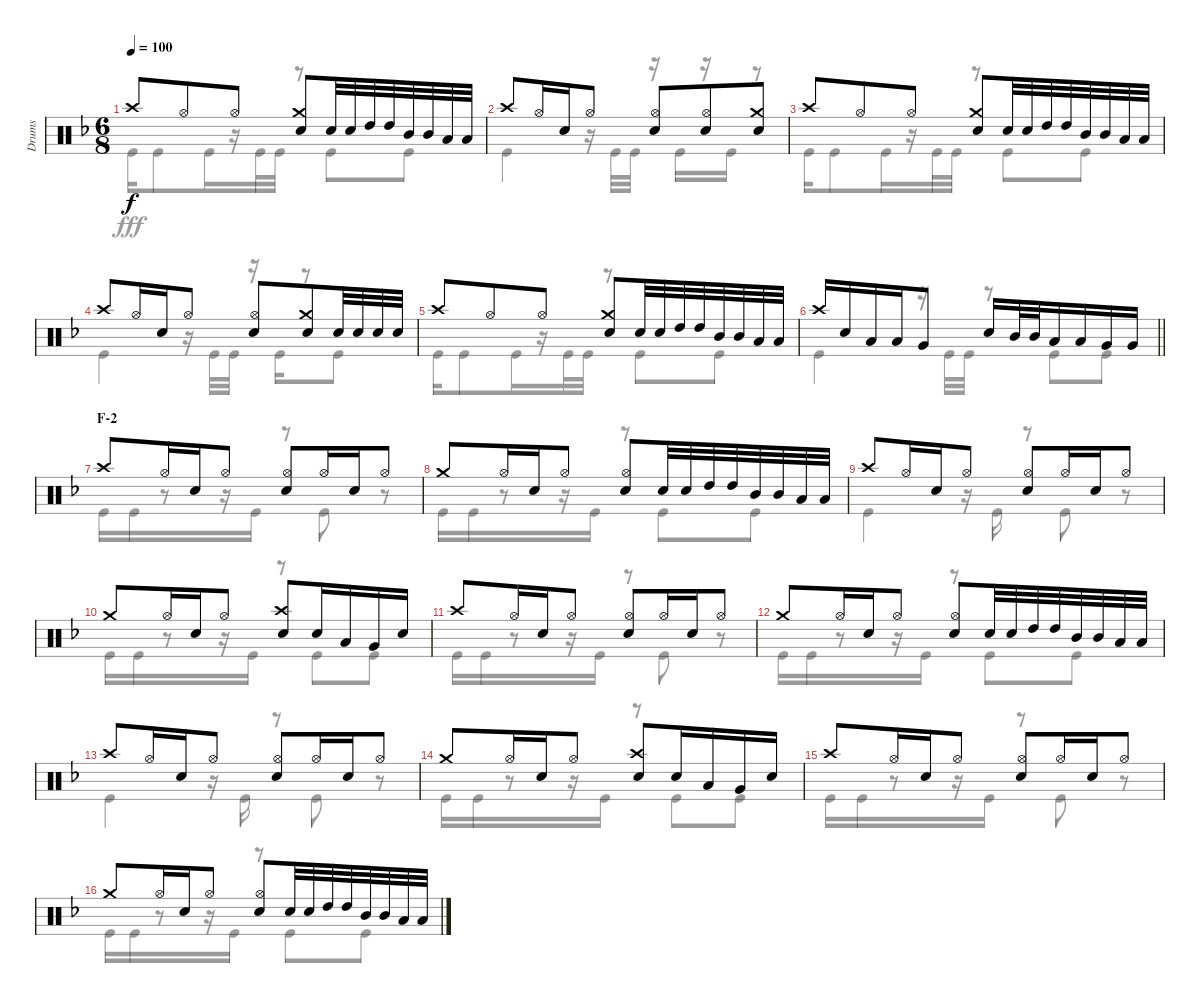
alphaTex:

\track ("Drums" "Drums") {instrument percussion}
\staff {score}
\articulation defaults
\voice
\ts (6 8)
\tempo 100
\clef neutral
\ks f "Crash high (hit)".8{dy f} "Hi-Hat (open)".8 "Hi-Hat (open)".8
("Crash medium (hit)" "Snare (hit) 2").8 "Snare (hit) 2".32 "Snare (hit) 2".32 "High Tom (hit)".32 "High Tom (hit)".32 "Mid Tom (hit)".32 "Mid Tom (hit)".32 "Low Tom (hit)".32 "Low Tom (hit)".32 |
"Crash high (hit)".8 "Hi-Hat (open)".16 "Snare (hit) 2".16 "Hi-Hat (open)".8 ("Hi-Hat (open)" "Snare (hit) 2").8 ("Hi-Hat (open)" "Snare (hit) 2").8 ("Crash medium (hit)" "Snare (hit) 2").8 |
"Crash high (hit)".8 "Hi-Hat (open)".8 "Hi-Hat (open)".8 ("Crash medium (hit)" "Snare (hit) 2").8 "Snare (hit) 2".32 "Snare (hit) 2".32 "High Tom (hit)".32 "High Tom (hit)".32 "Mid Tom (hit)".32 "Mid Tom (hit)".32 "Low Tom (hit)".32 "Low Tom (hit)".32 |
"Crash high (hit)".8 "Hi-Hat (open)".16 "Snare (hit) 2".16 "Hi-Hat (open)".8 ("Hi-Hat (open)" "Snare (hit) 2").8 ("Crash medium (hit)" "Snare (hit) 2").8 "Snare (hit) 2".32 "Snare (hit) 2".32 "Snare (hit) 2".32 "Snare (hit) 2".32 |
"Crash high (hit)".8 "Hi-Hat (open)".8 "Hi-Hat (open)".8 ("Crash medium (hit)" "Snare (hit) 2").8 "Snare (hit) 2".32 "Snare (hit) 2".32 "High Tom (hit)".32 "High Tom (hit)".32 "Mid Tom (hit)".32 "Mid Tom (hit)".32 "Low Tom (hit)".32 "Low Tom (hit)".32 |
\barLineRight lightlight "Crash high (hit)".16 "Snare (hit) 2".16 "Low Tom (hit)".16 "Low Tom (hit)".16 "Very Low Tom (hit)".8 "Snare (hit) 2".16 "Mid Tom (hit)".32 "Mid Tom (hit)".32 "Low Tom (hit)".16 "Low Tom (hit)".16 "Very Low Tom (hit)".16 "Very Low Tom (hit)".16
|
\section ("" "F-2")
"Crash high (hit)".8 "Hi-Hat (open)".16 "Snare (hit) 2".16 "Hi-Hat (open)".8 ("Hi-Hat (open)" "Snare (hit) 2").8 "Hi-Hat (open)".16 "Snare (hit) 2".16 "Hi-Hat (open)".8 |
"Crash medium (hit)".8 "Hi-Hat (open)".16 "Snare (hit) 2".16 "Hi-Hat (open)".8 ("Hi-Hat (open)" "Snare (hit) 2").8 "Snare (hit) 2".32 "Snare (hit) 2".32 "High Tom (hit)".32 "High Tom (hit)".32 "Mid Tom (hit)".32 "Mid Tom (hit)".32 "Low Tom (hit)".32 "Low Tom (hit)".32 |
"Crash high (hit)".8 "Hi-Hat (open)".16 "Snare (hit) 2".16 "Hi-Hat (open)".8 ("Hi-Hat (open)" "Snare (hit) 2").8 "Hi-Hat (open)".16 "Snare (hit) 2".16 "Hi-Hat (open)".8 |
"Crash medium (hit)".8 "Hi-Hat (open)".16 "Snare (hit) 2".16 "Hi-Hat (open)".8 ("Crash high (hit)" "Snare (hit) 2").8 "Snare (hit) 2".16 "Low Tom (hit)".16 "Very Low Tom (hit)".16 "Snare (hit) 2".16 |
"Crash high (hit)".8 "Hi-Hat (open)".16 "Snare (hit) 2".16 "Hi-Hat (open)".8 ("Hi-Hat (open)" "Snare (hit) 2").8 "Hi-Hat (open)".16 "Snare (hit) 2".16 "Hi-Hat (open)".8 |
"Crash medium (hit)".8 "Hi-Hat (open)".16 "Snare (hit) 2".16 "Hi-Hat (open)".8 ("Hi-Hat (open)" "Snare (hit) 2").8 "Snare (hit) 2".32 "Snare (hit) 2".32 "High Tom (hit)".32 "High Tom (hit)".32 "Mid Tom (hit)".32 "Mid Tom (hit)".32 "Low Tom (hit)".32 "Low Tom (hit)".32 |
"Crash high (hit)".8 "Hi-Hat (open)".16 "Snare (hit) 2".16 "Hi-Hat (open)".8 ("Hi-Hat (open)" "Snare (hit) 2").8 "Hi-Hat (open)".16 "Snare (hit) 2".16 "Hi-Hat (open)".8 |
"Crash medium (hit)".8 "Hi-Hat (open)".16 "Snare (hit) 2".16 "Hi-Hat (open)".8 ("Crash high (hit)" "Snare (hit) 2").8 "Snare (hit) 2".16 "Low Tom (hit)".16 "Very Low Tom (hit)".16 "Snare (hit) 2".16 |
"Crash high (hit)".8 "Hi-Hat (open)".16 "Snare (hit) 2".16 "Hi-Hat (open)".8 ("Hi-Hat (open)" "Snare (hit) 2").8 "Hi-Hat (open)".16 "Snare (hit) 2".16 "Hi-Hat (open)".8 |
"Crash medium (hit)".8 "Hi-Hat (open)".16 "Snare (hit) 2".16 "Hi-Hat (open)".8 ("Hi-Hat (open)" "Snare (hit) 2").8 "Snare (hit) 2".32 "Snare (hit) 2".32 "High Tom (hit)".32 "High Tom (hit)".32 "Mid Tom (hit)".32 "Mid Tom (hit)".32 "Low Tom (hit)".32 "Low Tom (hit)".32
\voice
\clef neutral
\ottava regular
\simile none
\ks f "Kick (hit)".16{dy fff} "Kick (hit)".8 "Kick (hit)".16
r.16 "Kick (hit)".32 "Kick (hit)".32 r.8 "Kick (hit)".8 "Kick (hit)".8 |
"Kick (hit)".4 r.16 "Kick (hit)".32 "Kick (hit)".32 r.16 "Kick (hit)".16 r.16 "Kick (hit)".16 r.8 |
"Kick (hit)".16 "Kick (hit)".8 "Kick (hit)".16 r.16 "Kick (hit)".32 "Kick (hit)".32 r.8 "Kick (hit)".8 "Kick (hit)".8 |
"Kick (hit)".4 r.16 "Kick (hit)".32 "Kick (hit)".32 r.16 "Kick (hit)".16 r.8 "Kick (hit)".8 |
"Kick (hit)".16 "Kick (hit)".8 "Kick (hit)".16 r.16 "Kick (hit)".32 "Kick (hit)".32 r.8 "Kick (hit)".8 "Kick (hit)".8 |
\barLineRight lightlight "Kick (hit)".4
r.16 "Kick (hit)".32 "Kick (hit)".32 r.8 "Kick (hit)".8 "Kick (hit)".8 |
"Kick (hit)".16 "Kick (hit)".16 r.8 r.16 "Kick (hit)".16 r.8 "Kick (hit)".8 r.8 |
"Kick (hit)".16 "Kick (hit)".16 r.8 r.16 "Kick (hit)".16 r.8 "Kick (hit)".8 "Kick (hit)".8 |
"Kick (hit)".4 r.16 "Kick (hit)".16 r.8 "Kick (hit)".8 r.8 |
"Kick (hit)".16 "Kick (hit)".16 r.8 r.16 "Kick (hit)".16 r.8 "Kick (hit)".8 "Kick (hit)".8 |
"Kick (hit)".16 "Kick (hit)".16 r.8 r.16 "Kick (hit)".16 r.8 "Kick (hit)".8 r.8 |
"Kick (hit)".16 "Kick (hit)".16 r.8 r.16 "Kick (hit)".16 r.8 "Kick (hit)".8 "Kick (hit)".8 |
"Kick (hit)".4 r.16 "Kick (hit)".16 r.8 "Kick (hit)".8 r.8 |
"Kick (hit)".16 "Kick (hit)".16 r.8 r.16 "Kick (hit)".16 r.8 "Kick (hit)".8 "Kick (hit)".8 |
"Kick (hit)".16 "Kick (hit)".16 r.8 r.16 "Kick (hit)".16 r.8 "Kick (hit)".8 r.8 |
"Kick (hit)".16 "Kick (hit)".16 r.8 r.16 "Kick (hit)".16 r.8 "Kick (hit)".8 "Kick (hit)".8
